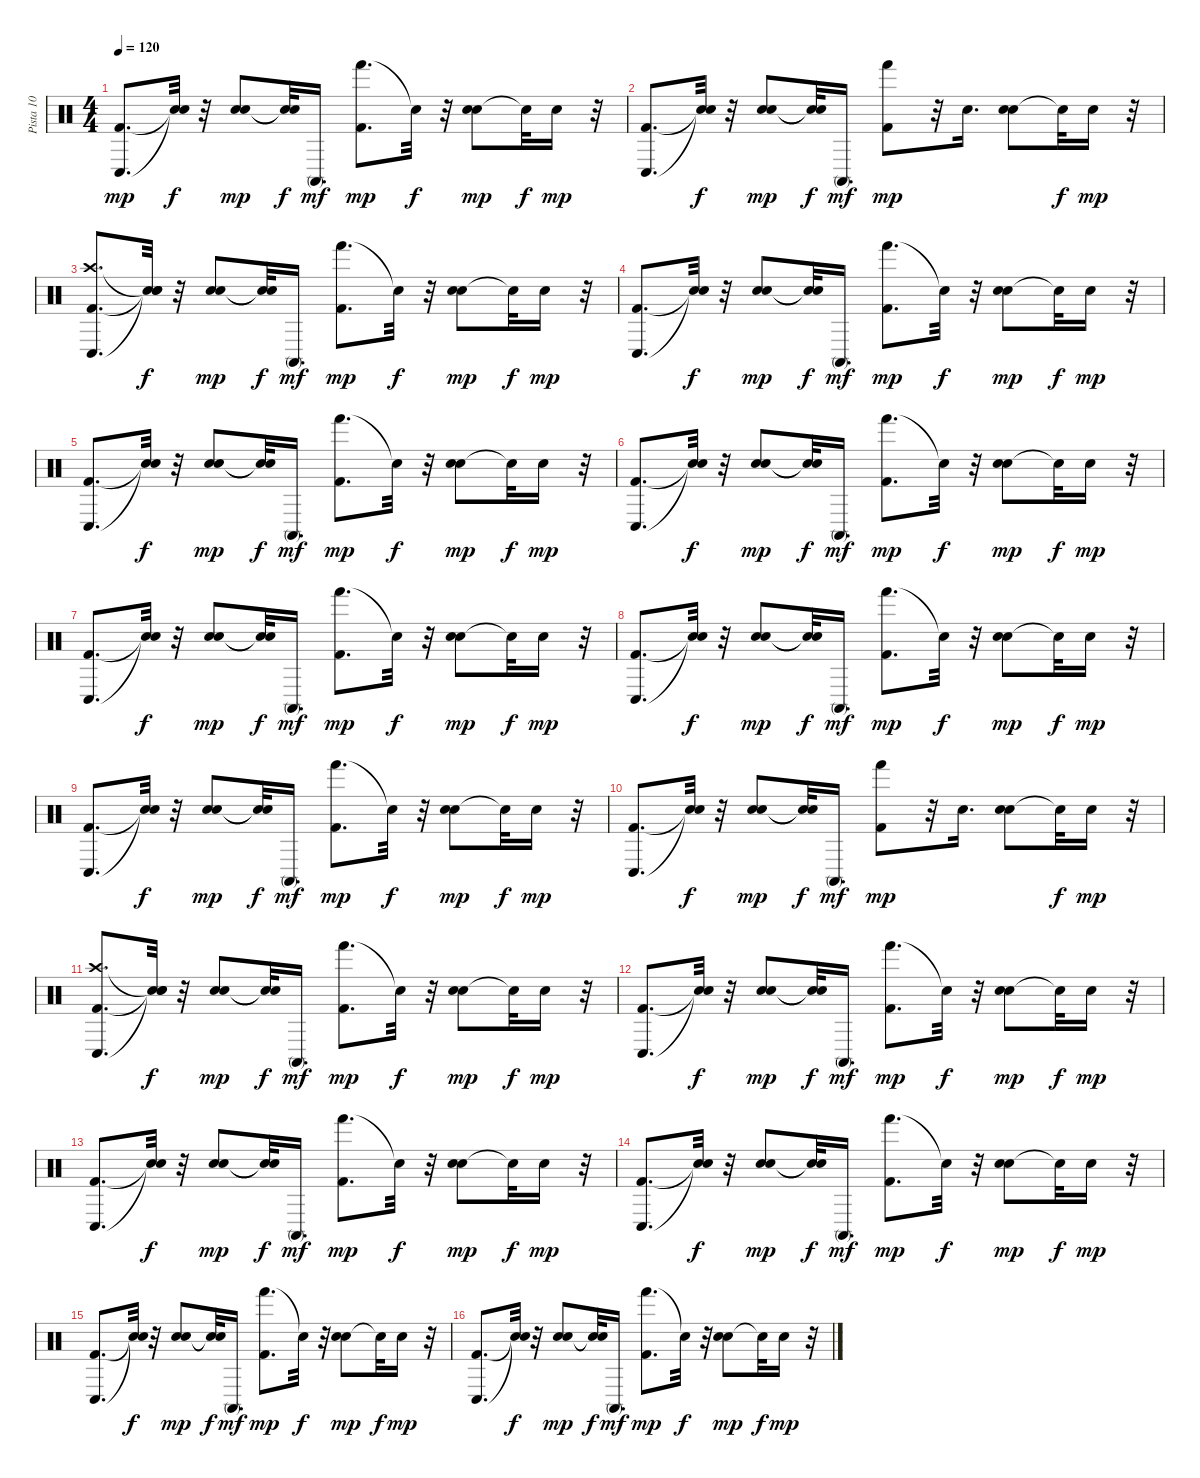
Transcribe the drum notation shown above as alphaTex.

\track ("Pista 10" "Pista 10") {instrument percussion}
\staff {score}
\articulation defaults
\ts (4 4)
\tempo 120
\clef neutral
\ks c
("Conga low (hit)" "Kick (hit) 2").8{d dy mp} ("Snare (hit)"{t} "Snare (hit)"{t}).32{dy f} r.32 ("Hand Clap (hit)" "Electric Snare (hit)").8{dy mp} ("Snare (hit)"{t} "Snare (hit)"{t}).32{dy f} "Conga high (mute)".16{d dy mf} ("Hand (hit)" "Kick (hit) 2").8{d dy mp} "Snare (hit)"{t}.32{dy f} r.32 ("Hand Clap (hit)" "Electric Snare (hit)").8{dy mp} "Snare (hit)"{t}.32{dy f} "Electric Snare (hit)".16{dy mp} r.32 |
("Conga low (hit)" "Kick (hit) 2").8{d} ("Snare (hit)"{t} "Snare (hit)"{t}).32{dy f} r.32 ("Hand Clap (hit)" "Electric Snare (hit)").8{dy mp} ("Snare (hit)"{t} "Snare (hit)"{t}).32{dy f} "Conga high (mute)".16{d dy mf} ("Hand (hit)" "Kick (hit) 2").8{dy mp} r.32 "Electric Snare (hit)".16{d} ("Hand Clap (hit)" "Electric Snare (hit)").8 "Snare (hit)"{t}.32{dy f} "Electric Snare (hit)".16{dy mp} r.32 |
("Conga low (hit)" "Kick (hit) 2" "Crash high (hit)").8{d} ("Snare (hit)"{t} "Snare (hit)"{t} "Snare (hit)"{t}).32{dy f} r.32 ("Hand Clap (hit)" "Electric Snare (hit)").8{dy mp} ("Snare (hit)"{t} "Snare (hit)"{t}).32{dy f} "Conga high (mute)".16{d dy mf} ("Hand (hit)" "Kick (hit) 2").8{d dy mp} "Snare (hit)"{t}.32{dy f} r.32 ("Hand Clap (hit)" "Electric Snare (hit)").8{dy mp} "Snare (hit)"{t}.32{dy f} "Electric Snare (hit)".16{dy mp} r.32 |
("Conga low (hit)" "Kick (hit) 2").8{d} ("Snare (hit)"{t} "Snare (hit)"{t}).32{dy f} r.32 ("Hand Clap (hit)" "Electric Snare (hit)").8{dy mp} ("Snare (hit)"{t} "Snare (hit)"{t}).32{dy f} "Conga high (mute)".16{d dy mf} ("Hand (hit)" "Kick (hit) 2").8{d dy mp} "Snare (hit)"{t}.32{dy f} r.32 ("Hand Clap (hit)" "Electric Snare (hit)").8{dy mp} "Snare (hit)"{t}.32{dy f} "Electric Snare (hit)".16{dy mp} r.32 |
("Conga low (hit)" "Kick (hit) 2").8{d} ("Snare (hit)"{t} "Snare (hit)"{t}).32{dy f} r.32 ("Hand Clap (hit)" "Electric Snare (hit)").8{dy mp} ("Snare (hit)"{t} "Snare (hit)"{t}).32{dy f} "Conga high (mute)".16{d dy mf} ("Hand (hit)" "Kick (hit) 2").8{d dy mp} "Snare (hit)"{t}.32{dy f} r.32 ("Hand Clap (hit)" "Electric Snare (hit)").8{dy mp} "Snare (hit)"{t}.32{dy f} "Electric Snare (hit)".16{dy mp} r.32 |
("Conga low (hit)" "Kick (hit) 2").8{d} ("Snare (hit)"{t} "Snare (hit)"{t}).32{dy f} r.32 ("Hand Clap (hit)" "Electric Snare (hit)").8{dy mp} ("Snare (hit)"{t} "Snare (hit)"{t}).32{dy f} "Conga high (mute)".16{d dy mf} ("Hand (hit)" "Kick (hit) 2").8{d dy mp} "Snare (hit)"{t}.32{dy f} r.32 ("Hand Clap (hit)" "Electric Snare (hit)").8{dy mp} "Snare (hit)"{t}.32{dy f} "Electric Snare (hit)".16{dy mp} r.32 |
("Conga low (hit)" "Kick (hit) 2").8{d} ("Snare (hit)"{t} "Snare (hit)"{t}).32{dy f} r.32 ("Hand Clap (hit)" "Electric Snare (hit)").8{dy mp} ("Snare (hit)"{t} "Snare (hit)"{t}).32{dy f} "Conga high (mute)".16{d dy mf} ("Hand (hit)" "Kick (hit) 2").8{d dy mp} "Snare (hit)"{t}.32{dy f} r.32 ("Hand Clap (hit)" "Electric Snare (hit)").8{dy mp} "Snare (hit)"{t}.32{dy f} "Electric Snare (hit)".16{dy mp} r.32 |
("Conga low (hit)" "Kick (hit) 2").8{d} ("Snare (hit)"{t} "Snare (hit)"{t}).32{dy f} r.32 ("Hand Clap (hit)" "Electric Snare (hit)").8{dy mp} ("Snare (hit)"{t} "Snare (hit)"{t}).32{dy f} "Conga high (mute)".16{d dy mf} ("Hand (hit)" "Kick (hit) 2").8{d dy mp} "Snare (hit)"{t}.32{dy f} r.32 ("Hand Clap (hit)" "Electric Snare (hit)").8{dy mp} "Snare (hit)"{t}.32{dy f} "Electric Snare (hit)".16{dy mp} r.32 |
("Conga low (hit)" "Kick (hit) 2").8{d} ("Snare (hit)"{t} "Snare (hit)"{t}).32{dy f} r.32 ("Hand Clap (hit)" "Electric Snare (hit)").8{dy mp} ("Snare (hit)"{t} "Snare (hit)"{t}).32{dy f} "Conga high (mute)".16{d dy mf} ("Hand (hit)" "Kick (hit) 2").8{d dy mp} "Snare (hit)"{t}.32{dy f} r.32 ("Hand Clap (hit)" "Electric Snare (hit)").8{dy mp} "Snare (hit)"{t}.32{dy f} "Electric Snare (hit)".16{dy mp} r.32 |
("Conga low (hit)" "Kick (hit) 2").8{d} ("Snare (hit)"{t} "Snare (hit)"{t}).32{dy f} r.32 ("Hand Clap (hit)" "Electric Snare (hit)").8{dy mp} ("Snare (hit)"{t} "Snare (hit)"{t}).32{dy f} "Conga high (mute)".16{d dy mf} ("Hand (hit)" "Kick (hit) 2").8{dy mp} r.32 "Electric Snare (hit)".16{d} ("Hand Clap (hit)" "Electric Snare (hit)").8 "Snare (hit)"{t}.32{dy f} "Electric Snare (hit)".16{dy mp} r.32 |
("Conga low (hit)" "Kick (hit) 2" "Crash high (hit)").8{d} ("Snare (hit)"{t} "Snare (hit)"{t} "Snare (hit)"{t}).32{dy f} r.32 ("Hand Clap (hit)" "Electric Snare (hit)").8{dy mp} ("Snare (hit)"{t} "Snare (hit)"{t}).32{dy f} "Conga high (mute)".16{d dy mf} ("Hand (hit)" "Kick (hit) 2").8{d dy mp} "Snare (hit)"{t}.32{dy f} r.32 ("Hand Clap (hit)" "Electric Snare (hit)").8{dy mp} "Snare (hit)"{t}.32{dy f} "Electric Snare (hit)".16{dy mp} r.32 |
("Conga low (hit)" "Kick (hit) 2").8{d} ("Snare (hit)"{t} "Snare (hit)"{t}).32{dy f} r.32 ("Hand Clap (hit)" "Electric Snare (hit)").8{dy mp} ("Snare (hit)"{t} "Snare (hit)"{t}).32{dy f} "Conga high (mute)".16{d dy mf} ("Hand (hit)" "Kick (hit) 2").8{d dy mp} "Snare (hit)"{t}.32{dy f} r.32 ("Hand Clap (hit)" "Electric Snare (hit)").8{dy mp} "Snare (hit)"{t}.32{dy f} "Electric Snare (hit)".16{dy mp} r.32 |
("Conga low (hit)" "Kick (hit) 2").8{d} ("Snare (hit)"{t} "Snare (hit)"{t}).32{dy f} r.32 ("Hand Clap (hit)" "Electric Snare (hit)").8{dy mp} ("Snare (hit)"{t} "Snare (hit)"{t}).32{dy f} "Conga high (mute)".16{d dy mf} ("Hand (hit)" "Kick (hit) 2").8{d dy mp} "Snare (hit)"{t}.32{dy f} r.32 ("Hand Clap (hit)" "Electric Snare (hit)").8{dy mp} "Snare (hit)"{t}.32{dy f} "Electric Snare (hit)".16{dy mp} r.32 |
("Conga low (hit)" "Kick (hit) 2").8{d} ("Snare (hit)"{t} "Snare (hit)"{t}).32{dy f} r.32 ("Hand Clap (hit)" "Electric Snare (hit)").8{dy mp} ("Snare (hit)"{t} "Snare (hit)"{t}).32{dy f} "Conga high (mute)".16{d dy mf} ("Hand (hit)" "Kick (hit) 2").8{d dy mp} "Snare (hit)"{t}.32{dy f} r.32 ("Hand Clap (hit)" "Electric Snare (hit)").8{dy mp} "Snare (hit)"{t}.32{dy f} "Electric Snare (hit)".16{dy mp} r.32 |
("Conga low (hit)" "Kick (hit) 2").8{d} ("Snare (hit)"{t} "Snare (hit)"{t}).32{dy f} r.32 ("Hand Clap (hit)" "Electric Snare (hit)").8{dy mp} ("Snare (hit)"{t} "Snare (hit)"{t}).32{dy f} "Conga high (mute)".16{d dy mf} ("Hand (hit)" "Kick (hit) 2").8{d dy mp} "Snare (hit)"{t}.32{dy f} r.32 ("Hand Clap (hit)" "Electric Snare (hit)").8{dy mp} "Snare (hit)"{t}.32{dy f} "Electric Snare (hit)".16{dy mp} r.32 |
("Conga low (hit)" "Kick (hit) 2").8{d} ("Snare (hit)"{t} "Snare (hit)"{t}).32{dy f} r.32 ("Hand Clap (hit)" "Electric Snare (hit)").8{dy mp} ("Snare (hit)"{t} "Snare (hit)"{t}).32{dy f} "Conga high (mute)".16{d dy mf} ("Hand (hit)" "Kick (hit) 2").8{d dy mp} "Snare (hit)"{t}.32{dy f} r.32 ("Hand Clap (hit)" "Electric Snare (hit)").8{dy mp} "Snare (hit)"{t}.32{dy f} "Electric Snare (hit)".16{dy mp} r.32
